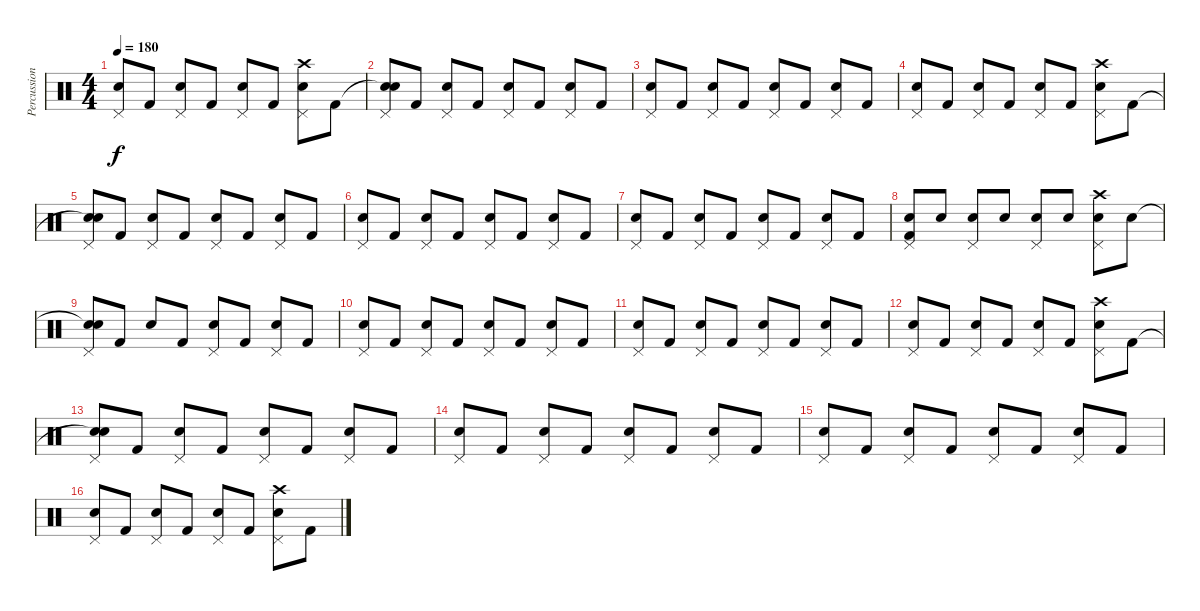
\track ("Percussion" "Percussion") {instrument percussion}
\staff {score}
\articulation defaults
\ts (4 4)
\tempo 180
\clef neutral
\ks c
("Pedal Hi-Hat (hit)" "Electric Snare (hit)").8{dy f} "Kick (hit) 2".8 ("Pedal Hi-Hat (hit)" "Electric Snare (hit)").8 "Kick (hit) 2".8 ("Pedal Hi-Hat (hit)" "Electric Snare (hit)").8 "Kick (hit) 2".8 ("Crash high (hit)" "Pedal Hi-Hat (hit)" "Electric Snare (hit)").8 "Kick (hit) 2".8 |
("Snare (hit)"{t} "Pedal Hi-Hat (hit)" "Electric Snare (hit)").8 "Kick (hit) 2".8 ("Pedal Hi-Hat (hit)" "Electric Snare (hit)").8 "Kick (hit) 2".8 ("Pedal Hi-Hat (hit)" "Electric Snare (hit)").8 "Kick (hit) 2".8 ("Pedal Hi-Hat (hit)" "Electric Snare (hit)").8 "Kick (hit) 2".8 |
("Pedal Hi-Hat (hit)" "Electric Snare (hit)").8 "Kick (hit) 2".8 ("Pedal Hi-Hat (hit)" "Electric Snare (hit)").8 "Kick (hit) 2".8 ("Pedal Hi-Hat (hit)" "Electric Snare (hit)").8 "Kick (hit) 2".8 ("Pedal Hi-Hat (hit)" "Electric Snare (hit)").8 "Kick (hit) 2".8 |
("Pedal Hi-Hat (hit)" "Electric Snare (hit)").8 "Kick (hit) 2".8 ("Pedal Hi-Hat (hit)" "Electric Snare (hit)").8 "Kick (hit) 2".8 ("Pedal Hi-Hat (hit)" "Electric Snare (hit)").8 "Kick (hit) 2".8 ("Crash high (hit)" "Pedal Hi-Hat (hit)" "Electric Snare (hit)").8 "Kick (hit) 2".8 |
("Snare (hit)"{t} "Pedal Hi-Hat (hit)" "Electric Snare (hit)").8 "Kick (hit) 2".8 ("Pedal Hi-Hat (hit)" "Electric Snare (hit)").8 "Kick (hit) 2".8 ("Pedal Hi-Hat (hit)" "Electric Snare (hit)").8 "Kick (hit) 2".8 ("Pedal Hi-Hat (hit)" "Electric Snare (hit)").8 "Kick (hit) 2".8 |
("Pedal Hi-Hat (hit)" "Electric Snare (hit)").8 "Kick (hit) 2".8 ("Pedal Hi-Hat (hit)" "Electric Snare (hit)").8 "Kick (hit) 2".8 ("Pedal Hi-Hat (hit)" "Electric Snare (hit)").8 "Kick (hit) 2".8 ("Pedal Hi-Hat (hit)" "Electric Snare (hit)").8 "Kick (hit) 2".8 |
("Pedal Hi-Hat (hit)" "Electric Snare (hit)").8 "Kick (hit) 2".8 ("Pedal Hi-Hat (hit)" "Electric Snare (hit)").8 "Kick (hit) 2".8 ("Pedal Hi-Hat (hit)" "Electric Snare (hit)").8 "Kick (hit) 2".8 ("Pedal Hi-Hat (hit)" "Electric Snare (hit)").8 "Kick (hit) 2".8 |
("Pedal Hi-Hat (hit)" "Electric Snare (hit)" "Kick (hit) 2").8 "Electric Snare (hit)".8 ("Pedal Hi-Hat (hit)" "Electric Snare (hit)").8 "Electric Snare (hit)".8 ("Pedal Hi-Hat (hit)" "Electric Snare (hit)").8 "Electric Snare (hit)".8 ("Crash high (hit)" "Pedal Hi-Hat (hit)" "Electric Snare (hit)").8 "Electric Snare (hit)".8 |
("Snare (hit)"{t} "Pedal Hi-Hat (hit)" "Electric Snare (hit)").8 "Kick (hit) 2".8 "Electric Snare (hit)".8 "Kick (hit) 2".8 ("Pedal Hi-Hat (hit)" "Electric Snare (hit)").8 "Kick (hit) 2".8 ("Pedal Hi-Hat (hit)" "Electric Snare (hit)").8 "Kick (hit) 2".8 |
("Pedal Hi-Hat (hit)" "Electric Snare (hit)").8 "Kick (hit) 2".8 ("Pedal Hi-Hat (hit)" "Electric Snare (hit)").8 "Kick (hit) 2".8 ("Pedal Hi-Hat (hit)" "Electric Snare (hit)").8 "Kick (hit) 2".8 ("Pedal Hi-Hat (hit)" "Electric Snare (hit)").8 "Kick (hit) 2".8 |
("Pedal Hi-Hat (hit)" "Electric Snare (hit)").8 "Kick (hit) 2".8 ("Pedal Hi-Hat (hit)" "Electric Snare (hit)").8 "Kick (hit) 2".8 ("Pedal Hi-Hat (hit)" "Electric Snare (hit)").8 "Kick (hit) 2".8 ("Pedal Hi-Hat (hit)" "Electric Snare (hit)").8 "Kick (hit) 2".8 |
("Pedal Hi-Hat (hit)" "Electric Snare (hit)").8 "Kick (hit) 2".8 ("Pedal Hi-Hat (hit)" "Electric Snare (hit)").8 "Kick (hit) 2".8 ("Pedal Hi-Hat (hit)" "Electric Snare (hit)").8 "Kick (hit) 2".8 ("Crash high (hit)" "Pedal Hi-Hat (hit)" "Electric Snare (hit)").8 "Kick (hit) 2".8 |
("Snare (hit)"{t} "Pedal Hi-Hat (hit)" "Electric Snare (hit)").8 "Kick (hit) 2".8 ("Pedal Hi-Hat (hit)" "Electric Snare (hit)").8 "Kick (hit) 2".8 ("Pedal Hi-Hat (hit)" "Electric Snare (hit)").8 "Kick (hit) 2".8 ("Pedal Hi-Hat (hit)" "Electric Snare (hit)").8 "Kick (hit) 2".8 |
("Pedal Hi-Hat (hit)" "Electric Snare (hit)").8 "Kick (hit) 2".8 ("Pedal Hi-Hat (hit)" "Electric Snare (hit)").8 "Kick (hit) 2".8 ("Pedal Hi-Hat (hit)" "Electric Snare (hit)").8 "Kick (hit) 2".8 ("Pedal Hi-Hat (hit)" "Electric Snare (hit)").8 "Kick (hit) 2".8 |
("Pedal Hi-Hat (hit)" "Electric Snare (hit)").8 "Kick (hit) 2".8 ("Pedal Hi-Hat (hit)" "Electric Snare (hit)").8 "Kick (hit) 2".8 ("Pedal Hi-Hat (hit)" "Electric Snare (hit)").8 "Kick (hit) 2".8 ("Pedal Hi-Hat (hit)" "Electric Snare (hit)").8 "Kick (hit) 2".8 |
("Pedal Hi-Hat (hit)" "Electric Snare (hit)").8 "Kick (hit) 2".8 ("Pedal Hi-Hat (hit)" "Electric Snare (hit)").8 "Kick (hit) 2".8 ("Pedal Hi-Hat (hit)" "Electric Snare (hit)").8 "Kick (hit) 2".8 ("Crash high (hit)" "Pedal Hi-Hat (hit)" "Electric Snare (hit)").8 "Kick (hit) 2".8
